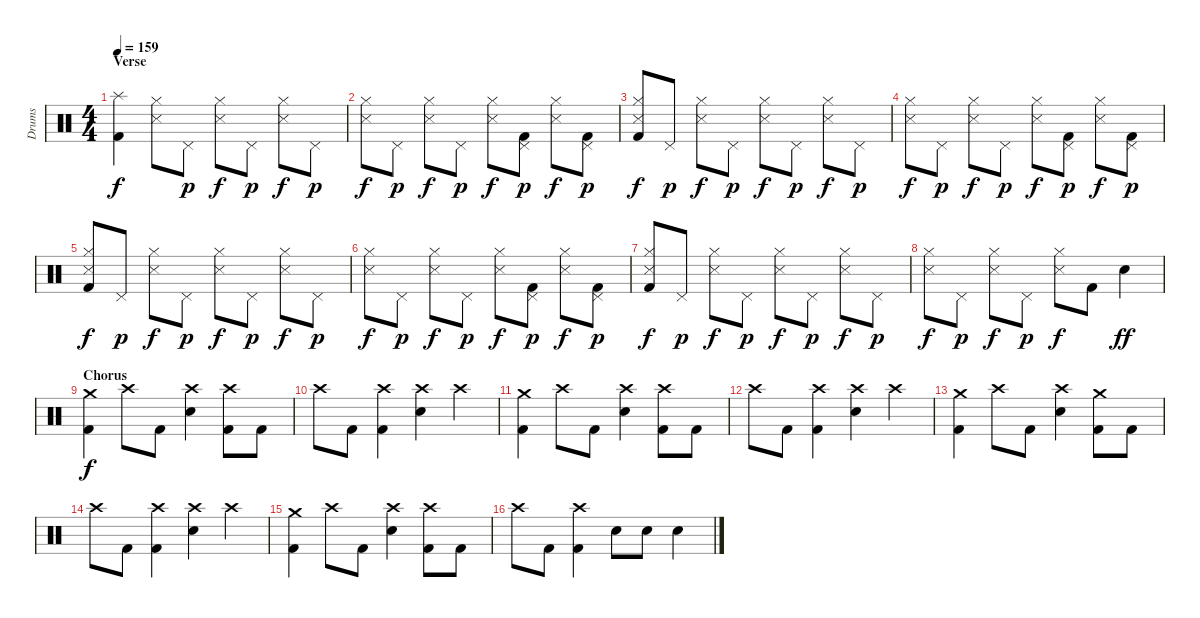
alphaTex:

\track ("Drums" "Drums") {instrument percussion}
\staff {score}
\articulation defaults
\ts (4 4)
\section ("" "Verse")
\tempo 159
\clef neutral
\ks c
("Splash (hit)" "Kick (hit) 2").4{dy f} ("Hi-Hat (closed)" "Snare (side stick) 3").8 "Pedal Hi-Hat (hit)".8{dy p} ("Hi-Hat (closed)" "Snare (side stick) 3").8{dy f} "Pedal Hi-Hat (hit)".8{dy p} ("Hi-Hat (closed)" "Snare (side stick) 3").8{dy f} "Pedal Hi-Hat (hit)".8{dy p} |
("Hi-Hat (closed)" "Snare (side stick) 3").8{dy f} "Pedal Hi-Hat (hit)".8{dy p} ("Hi-Hat (closed)" "Snare (side stick) 3").8{dy f} "Pedal Hi-Hat (hit)".8{dy p} ("Hi-Hat (closed)" "Snare (side stick) 3").8{dy f} ("Pedal Hi-Hat (hit)" "Kick (hit) 2").8{dy p} ("Hi-Hat (closed)" "Snare (side stick) 3").8{dy f} ("Pedal Hi-Hat (hit)" "Kick (hit) 2").8{dy p} |
("Hi-Hat (closed)" "Snare (side stick) 3" "Kick (hit) 2").8{dy f} "Pedal Hi-Hat (hit)".8{dy p} ("Hi-Hat (closed)" "Snare (side stick) 3").8{dy f} "Pedal Hi-Hat (hit)".8{dy p} ("Hi-Hat (closed)" "Snare (side stick) 3").8{dy f} "Pedal Hi-Hat (hit)".8{dy p} ("Hi-Hat (closed)" "Snare (side stick) 3").8{dy f} "Pedal Hi-Hat (hit)".8{dy p} |
("Hi-Hat (closed)" "Snare (side stick) 3").8{dy f} "Pedal Hi-Hat (hit)".8{dy p} ("Hi-Hat (closed)" "Snare (side stick) 3").8{dy f} "Pedal Hi-Hat (hit)".8{dy p} ("Hi-Hat (closed)" "Snare (side stick) 3").8{dy f} ("Pedal Hi-Hat (hit)" "Kick (hit) 2").8{dy p} ("Hi-Hat (closed)" "Snare (side stick) 3").8{dy f} ("Pedal Hi-Hat (hit)" "Kick (hit) 2").8{dy p} |
("Hi-Hat (closed)" "Snare (side stick) 3" "Kick (hit) 2").8{dy f} "Pedal Hi-Hat (hit)".8{dy p} ("Hi-Hat (closed)" "Snare (side stick) 3").8{dy f} "Pedal Hi-Hat (hit)".8{dy p} ("Hi-Hat (closed)" "Snare (side stick) 3").8{dy f} "Pedal Hi-Hat (hit)".8{dy p} ("Hi-Hat (closed)" "Snare (side stick) 3").8{dy f} "Pedal Hi-Hat (hit)".8{dy p} |
("Hi-Hat (closed)" "Snare (side stick) 3").8{dy f} "Pedal Hi-Hat (hit)".8{dy p} ("Hi-Hat (closed)" "Snare (side stick) 3").8{dy f} "Pedal Hi-Hat (hit)".8{dy p} ("Hi-Hat (closed)" "Snare (side stick) 3").8{dy f} ("Pedal Hi-Hat (hit)" "Kick (hit) 2").8{dy p} ("Hi-Hat (closed)" "Snare (side stick) 3").8{dy f} ("Pedal Hi-Hat (hit)" "Kick (hit) 2").8{dy p} |
("Hi-Hat (closed)" "Snare (side stick) 3" "Kick (hit) 2").8{dy f} "Pedal Hi-Hat (hit)".8{dy p} ("Hi-Hat (closed)" "Snare (side stick) 3").8{dy f} "Pedal Hi-Hat (hit)".8{dy p} ("Hi-Hat (closed)" "Snare (side stick) 3").8{dy f} "Pedal Hi-Hat (hit)".8{dy p} ("Hi-Hat (closed)" "Snare (side stick) 3").8{dy f} "Pedal Hi-Hat (hit)".8{dy p} |
("Hi-Hat (closed)" "Snare (side stick) 3").8{dy f} "Pedal Hi-Hat (hit)".8{dy p} ("Hi-Hat (closed)" "Snare (side stick) 3").8{dy f} "Pedal Hi-Hat (hit)".8{dy p} ("Hi-Hat (closed)" "Snare (side stick) 3").8{dy f} "Kick (hit) 2".8 "Electric Snare (hit)".4{dy ff} |
\section ("" "Chorus")
("Crash medium (hit)" "Kick (hit) 2").4{dy f} "Crash high (hit)".8 "Kick (hit) 2".8 ("Crash high (hit)" "Electric Snare (hit)").4 ("Crash high (hit)" "Kick (hit) 2").8 "Kick (hit) 2".8 |
"Crash high (hit)".8 "Kick (hit) 2".8 ("Crash high (hit)" "Kick (hit) 2").4 ("Crash high (hit)" "Electric Snare (hit)").4 "Crash high (hit)".4 |
("Crash medium (hit)" "Kick (hit) 2").4 "Crash high (hit)".8 "Kick (hit) 2".8 ("Crash high (hit)" "Electric Snare (hit)").4 ("Crash high (hit)" "Kick (hit) 2").8 "Kick (hit) 2".8 |
"Crash high (hit)".8 "Kick (hit) 2".8 ("Crash high (hit)" "Kick (hit) 2").4 ("Crash high (hit)" "Electric Snare (hit)").4 "Crash high (hit)".4 |
("Crash medium (hit)" "Kick (hit) 2").4 "Crash high (hit)".8 "Kick (hit) 2".8 ("Crash high (hit)" "Electric Snare (hit)").4 ("Crash medium (hit)" "Kick (hit) 2").8 "Kick (hit) 2".8 |
"Crash high (hit)".8 "Kick (hit) 2".8 ("Crash high (hit)" "Kick (hit) 2").4 ("Crash high (hit)" "Electric Snare (hit)").4 "Crash high (hit)".4 |
("Crash medium (hit)" "Kick (hit) 2").4 "Crash high (hit)".8 "Kick (hit) 2".8 ("Crash high (hit)" "Electric Snare (hit)").4 ("Crash high (hit)" "Kick (hit) 2").8 "Kick (hit) 2".8 |
"Crash high (hit)".8 "Kick (hit) 2".8 ("Crash high (hit)" "Kick (hit) 2").4 "Electric Snare (hit)".8 "Electric Snare (hit)".8 "Electric Snare (hit)".4
